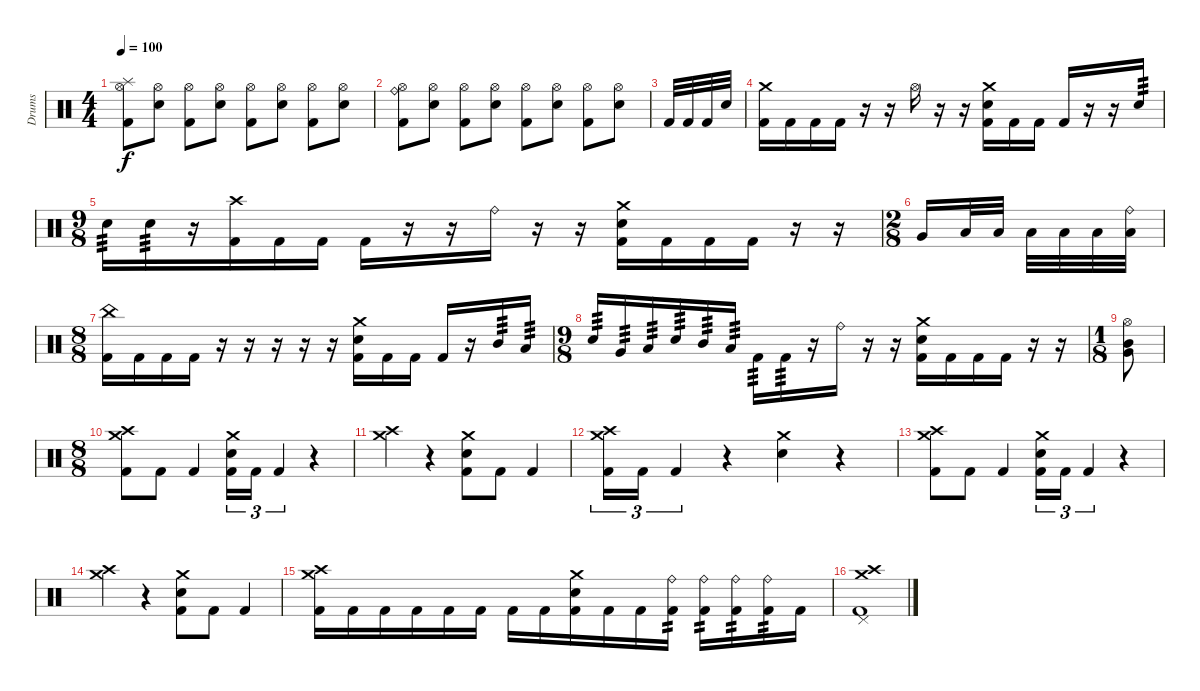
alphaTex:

\track ("Drums" "Drums") {instrument percussion}
\staff {score}
\articulation defaults
\ts (4 4)
\tempo 100
\clef neutral
\ks c
("Hi-Hat (open)" "Splash (hit)" "Kick (hit) 2").8{dy f} ("Hi-Hat (open)" "Electric Snare (hit)").8 ("Hi-Hat (open)" "Kick (hit) 2").8 ("Hi-Hat (open)" "Electric Snare (hit)").8 ("Hi-Hat (open)" "Kick (hit) 2").8 ("Hi-Hat (open)" "Electric Snare (hit)").8 ("Hi-Hat (open)" "Kick (hit) 2").8 ("Hi-Hat (open)" "Electric Snare (hit)").8 |
("Hi-Hat (open)" "Ride (bell)" "Kick (hit) 2").8 ("Hi-Hat (open)" "Electric Snare (hit)").8 ("Hi-Hat (open)" "Kick (hit) 2").8 ("Hi-Hat (open)" "Electric Snare (hit)").8 ("Hi-Hat (open)" "Kick (hit) 2").8 ("Hi-Hat (open)" "Electric Snare (hit)").8 ("Hi-Hat (open)" "Kick (hit) 2").8 ("Hi-Hat (open)" "Electric Snare (hit)").8 |
"Kick (hit) 2".32 "Kick (hit) 2".32 "Kick (hit) 2".32 "Electric Snare (hit)".32 |
("Crash medium (hit)" "Kick (hit) 2").16 "Kick (hit) 2".16 "Kick (hit) 2".16 "Kick (hit) 2".16 r.16 r.16 "Hi-Hat (open)".16 r.16 r.16 ("Crash medium (hit)" "Electric Snare (hit)" "Kick (hit) 2").16 "Kick (hit) 2".16 "Kick (hit) 2".16 "Kick (hit) 2".16 r.16 r.16 "Electric Snare (hit)".16{tp 3} |
\ts (9 8)
"Electric Snare (hit)".16{tp 3} "Electric Snare (hit)".16{tp 3} r.16 ("Crash high (hit)" "Kick (hit) 2").16 "Kick (hit) 2".16 "Kick (hit) 2".16 "Kick (hit) 2".16 r.16 r.16 "Ride (bell)".16 r.16 r.16 ("Crash medium (hit)" "Electric Snare (hit)" "Kick (hit) 2").16 "Kick (hit) 2".16 "Kick (hit) 2".16 "Kick (hit) 2".16 r.16 r.16 |
\ts (2 8)
"Very Low Tom (hit)".16 "Low Floor Tom (hit)".32 "Low Floor Tom (hit)".32 "Low Tom (hit)".32 "Low Tom (hit)".32 "Low Tom (hit)".32 ("Ride (bell)" "Low Tom (hit)").32 |
\ts (8 8)
("China (hit)" "Kick (hit) 2").16 "Kick (hit) 2".16 "Kick (hit) 2".16 "Kick (hit) 2".16 r.16 r.16 r.16 r.16 r.16 ("Crash medium (hit)" "Electric Snare (hit)" "Kick (hit) 2").16 "Kick (hit) 2".16 "Kick (hit) 2".16 "Kick (hit) 2".16 r.16 "Mid Tom (hit)".16{tp 3} "Low Tom (hit)".16{tp 3} |
\ts (9 8)
"Electric Snare (hit)".16{tp 3} "Very Low Tom (hit)".16{tp 3} "Low Floor Tom (hit)".16{tp 3} "Electric Snare (hit)".16{tp 3} "Mid Tom (hit)".16{tp 3} "Low Tom (hit)".16{tp 3} "Kick (hit) 2".16{tp 3} "Kick (hit) 2".16{tp 3} r.16 "Ride (bell)".16 r.16 r.16 ("Crash medium (hit)" "Electric Snare (hit)" "Kick (hit) 2").16 "Kick (hit) 2".16 "Kick (hit) 2".16 "Kick (hit) 2".16 r.16 r.16 |
\ts (1 8)
("Hi-Hat (open)" "Very Low Tom (hit)" "Mid Tom (hit)").8 |
\ts (8 8)
("Crash medium (hit)" "Crash high (hit)" "Kick (hit) 2").8 "Kick (hit) 2".8 "Kick (hit) 2".4 ("Crash medium (hit)" "Electric Snare (hit)" "Kick (hit) 2").16{tu (3 2)} "Kick (hit) 2".16{tu (3 2)} "Kick (hit) 2".4{tu (3 2)} r.4 |
("Crash medium (hit)" "Crash high (hit)").4 r.4 ("Crash medium (hit)" "Electric Snare (hit)" "Kick (hit) 2").8 "Kick (hit) 2".8 "Kick (hit) 2".4 |
("Crash medium (hit)" "Crash high (hit)" "Kick (hit) 2").16{tu (3 2)} "Kick (hit) 2".16{tu (3 2)} "Kick (hit) 2".4{tu (3 2)} r.4 ("Crash medium (hit)" "Electric Snare (hit)").4 r.4 |
("Crash medium (hit)" "Crash high (hit)" "Kick (hit) 2").8 "Kick (hit) 2".8 "Kick (hit) 2".4 ("Crash medium (hit)" "Electric Snare (hit)" "Kick (hit) 2").16{tu (3 2)} "Kick (hit) 2".16{tu (3 2)} "Kick (hit) 2".4{tu (3 2)} r.4 |
("Crash medium (hit)" "Crash high (hit)").4 r.4 ("Crash medium (hit)" "Electric Snare (hit)" "Kick (hit) 2").8 "Kick (hit) 2".8 "Kick (hit) 2".4 |
("Crash medium (hit)" "Crash high (hit)" "Kick (hit) 2").16 "Kick (hit) 2".16 "Kick (hit) 2".16 "Kick (hit) 2".16 "Kick (hit) 2".16 "Kick (hit) 2".16 "Kick (hit) 2".16 "Kick (hit) 2".16 ("Crash medium (hit)" "Electric Snare (hit)" "Kick (hit) 2").16 "Kick (hit) 2".16 "Kick (hit) 2".16 ("Ride (bell)" "Kick (hit) 2").16{tp 2} ("Ride (bell)" "Kick (hit) 2").16{tp 2} ("Ride (bell)" "Kick (hit) 2").16{tp 2} ("Ride (bell)" "Kick (hit) 2").16{tp 2} "Kick (hit) 2".16 |
("Crash medium (hit)" "Crash high (hit)" "Pedal Hi-Hat (hit)" "Kick (hit) 2").1
